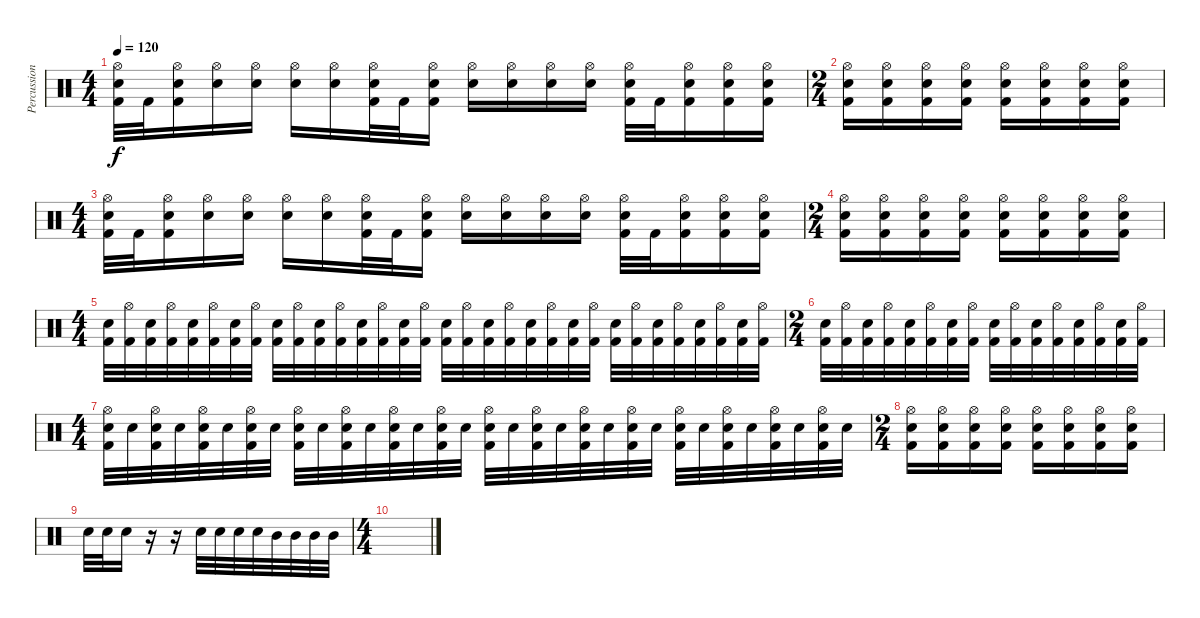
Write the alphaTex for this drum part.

\track ("Percussion" "Percussion") {instrument percussion}
\staff {score}
\articulation defaults
\ts (4 4)
\tempo 120
\clef neutral
\ks c
("Hi-Hat (open)" "Electric Snare (hit)" "Kick (hit) 2").32{dy f} "Kick (hit) 2".32 ("Hi-Hat (open)" "Electric Snare (hit)" "Kick (hit) 2").16 ("Hi-Hat (open)" "Electric Snare (hit)").16 ("Hi-Hat (open)" "Electric Snare (hit)").16 ("Hi-Hat (open)" "Electric Snare (hit)").16 ("Hi-Hat (open)" "Electric Snare (hit)").16 ("Hi-Hat (open)" "Electric Snare (hit)" "Kick (hit) 2").32 "Kick (hit) 2".32 ("Hi-Hat (open)" "Electric Snare (hit)" "Kick (hit) 2").16 ("Hi-Hat (open)" "Electric Snare (hit)").16 ("Hi-Hat (open)" "Electric Snare (hit)").16 ("Hi-Hat (open)" "Electric Snare (hit)").16 ("Hi-Hat (open)" "Electric Snare (hit)").16 ("Hi-Hat (open)" "Electric Snare (hit)" "Kick (hit) 2").32 "Kick (hit) 2".32 ("Hi-Hat (open)" "Electric Snare (hit)" "Kick (hit) 2").16 ("Hi-Hat (open)" "Electric Snare (hit)" "Kick (hit) 2").16 ("Hi-Hat (open)" "Electric Snare (hit)" "Kick (hit) 2").16 |
\ts (2 4)
("Hi-Hat (open)" "Electric Snare (hit)" "Kick (hit) 2").16 ("Hi-Hat (open)" "Electric Snare (hit)" "Kick (hit) 2").16 ("Hi-Hat (open)" "Electric Snare (hit)" "Kick (hit) 2").16 ("Hi-Hat (open)" "Electric Snare (hit)" "Kick (hit) 2").16 ("Hi-Hat (open)" "Electric Snare (hit)" "Kick (hit) 2").16 ("Hi-Hat (open)" "Electric Snare (hit)" "Kick (hit) 2").16 ("Hi-Hat (open)" "Electric Snare (hit)" "Kick (hit) 2").16 ("Hi-Hat (open)" "Electric Snare (hit)" "Kick (hit) 2").16 |
\ts (4 4)
("Hi-Hat (open)" "Electric Snare (hit)" "Kick (hit) 2").32 "Kick (hit) 2".32 ("Hi-Hat (open)" "Electric Snare (hit)" "Kick (hit) 2").16 ("Hi-Hat (open)" "Electric Snare (hit)").16 ("Hi-Hat (open)" "Electric Snare (hit)").16 ("Hi-Hat (open)" "Electric Snare (hit)").16 ("Hi-Hat (open)" "Electric Snare (hit)").16 ("Hi-Hat (open)" "Electric Snare (hit)" "Kick (hit) 2").32 "Kick (hit) 2".32 ("Hi-Hat (open)" "Electric Snare (hit)" "Kick (hit) 2").16 ("Hi-Hat (open)" "Electric Snare (hit)").16 ("Hi-Hat (open)" "Electric Snare (hit)").16 ("Hi-Hat (open)" "Electric Snare (hit)").16 ("Hi-Hat (open)" "Electric Snare (hit)").16 ("Hi-Hat (open)" "Electric Snare (hit)" "Kick (hit) 2").32 "Kick (hit) 2".32 ("Hi-Hat (open)" "Electric Snare (hit)" "Kick (hit) 2").16 ("Hi-Hat (open)" "Electric Snare (hit)" "Kick (hit) 2").16 ("Hi-Hat (open)" "Electric Snare (hit)" "Kick (hit) 2").16 |
\ts (2 4)
("Hi-Hat (open)" "Electric Snare (hit)" "Kick (hit) 2").16 ("Hi-Hat (open)" "Electric Snare (hit)" "Kick (hit) 2").16 ("Hi-Hat (open)" "Electric Snare (hit)" "Kick (hit) 2").16 ("Hi-Hat (open)" "Electric Snare (hit)" "Kick (hit) 2").16 ("Hi-Hat (open)" "Electric Snare (hit)" "Kick (hit) 2").16 ("Hi-Hat (open)" "Electric Snare (hit)" "Kick (hit) 2").16 ("Hi-Hat (open)" "Electric Snare (hit)" "Kick (hit) 2").16 ("Hi-Hat (open)" "Electric Snare (hit)" "Kick (hit) 2").16 |
\ts (4 4)
("Electric Snare (hit)" "Kick (hit) 2").32 ("Hi-Hat (open)" "Kick (hit) 2").32 ("Electric Snare (hit)" "Kick (hit) 2").32 ("Hi-Hat (open)" "Kick (hit) 2").32 ("Electric Snare (hit)" "Kick (hit) 2").32 ("Hi-Hat (open)" "Kick (hit) 2").32 ("Electric Snare (hit)" "Kick (hit) 2").32 ("Hi-Hat (open)" "Kick (hit) 2").32 ("Electric Snare (hit)" "Kick (hit) 2").32 ("Hi-Hat (open)" "Kick (hit) 2").32 ("Electric Snare (hit)" "Kick (hit) 2").32 ("Hi-Hat (open)" "Kick (hit) 2").32 ("Electric Snare (hit)" "Kick (hit) 2").32 ("Hi-Hat (open)" "Kick (hit) 2").32 ("Electric Snare (hit)" "Kick (hit) 2").32 ("Hi-Hat (open)" "Kick (hit) 2").32 ("Electric Snare (hit)" "Kick (hit) 2").32 ("Hi-Hat (open)" "Kick (hit) 2").32 ("Electric Snare (hit)" "Kick (hit) 2").32 ("Hi-Hat (open)" "Kick (hit) 2").32 ("Electric Snare (hit)" "Kick (hit) 2").32 ("Hi-Hat (open)" "Kick (hit) 2").32 ("Electric Snare (hit)" "Kick (hit) 2").32 ("Hi-Hat (open)" "Kick (hit) 2").32 ("Electric Snare (hit)" "Kick (hit) 2").32 ("Hi-Hat (open)" "Kick (hit) 2").32 ("Electric Snare (hit)" "Kick (hit) 2").32 ("Hi-Hat (open)" "Kick (hit) 2").32 ("Electric Snare (hit)" "Kick (hit) 2").32 ("Hi-Hat (open)" "Kick (hit) 2").32 ("Electric Snare (hit)" "Kick (hit) 2").32 ("Hi-Hat (open)" "Kick (hit) 2").32 |
\ts (2 4)
("Electric Snare (hit)" "Kick (hit) 2").32 ("Hi-Hat (open)" "Kick (hit) 2").32 ("Electric Snare (hit)" "Kick (hit) 2").32 ("Hi-Hat (open)" "Kick (hit) 2").32 ("Electric Snare (hit)" "Kick (hit) 2").32 ("Hi-Hat (open)" "Kick (hit) 2").32 ("Electric Snare (hit)" "Kick (hit) 2").32 ("Hi-Hat (open)" "Kick (hit) 2").32 ("Electric Snare (hit)" "Kick (hit) 2").32 ("Hi-Hat (open)" "Kick (hit) 2").32 ("Electric Snare (hit)" "Kick (hit) 2").32 ("Hi-Hat (open)" "Kick (hit) 2").32 ("Electric Snare (hit)" "Kick (hit) 2").32 ("Hi-Hat (open)" "Kick (hit) 2").32 ("Electric Snare (hit)" "Kick (hit) 2").32 ("Hi-Hat (open)" "Kick (hit) 2").32 |
\ts (4 4)
("Hi-Hat (open)" "Electric Snare (hit)" "Kick (hit) 2").32 "Electric Snare (hit)".32 ("Hi-Hat (open)" "Electric Snare (hit)" "Kick (hit) 2").32 "Electric Snare (hit)".32 ("Hi-Hat (open)" "Electric Snare (hit)" "Kick (hit) 2").32 "Electric Snare (hit)".32 ("Hi-Hat (open)" "Electric Snare (hit)" "Kick (hit) 2").32 "Electric Snare (hit)".32 ("Hi-Hat (open)" "Electric Snare (hit)" "Kick (hit) 2").32 "Electric Snare (hit)".32 ("Hi-Hat (open)" "Electric Snare (hit)" "Kick (hit) 2").32 "Electric Snare (hit)".32 ("Hi-Hat (open)" "Electric Snare (hit)" "Kick (hit) 2").32 "Electric Snare (hit)".32 ("Hi-Hat (open)" "Electric Snare (hit)" "Kick (hit) 2").32 "Electric Snare (hit)".32 ("Hi-Hat (open)" "Electric Snare (hit)" "Kick (hit) 2").32 "Electric Snare (hit)".32 ("Hi-Hat (open)" "Electric Snare (hit)" "Kick (hit) 2").32 "Electric Snare (hit)".32 ("Hi-Hat (open)" "Electric Snare (hit)" "Kick (hit) 2").32 "Electric Snare (hit)".32 ("Hi-Hat (open)" "Electric Snare (hit)" "Kick (hit) 2").32 "Electric Snare (hit)".32 ("Hi-Hat (open)" "Electric Snare (hit)" "Kick (hit) 2").32 "Electric Snare (hit)".32 ("Hi-Hat (open)" "Electric Snare (hit)" "Kick (hit) 2").32 "Electric Snare (hit)".32 ("Hi-Hat (open)" "Electric Snare (hit)" "Kick (hit) 2").32 "Electric Snare (hit)".32 ("Hi-Hat (open)" "Electric Snare (hit)" "Kick (hit) 2").32 "Electric Snare (hit)".32 |
\ts (2 4)
("Hi-Hat (open)" "Electric Snare (hit)" "Kick (hit) 2").16 ("Hi-Hat (open)" "Electric Snare (hit)" "Kick (hit) 2").16 ("Hi-Hat (open)" "Electric Snare (hit)" "Kick (hit) 2").16 ("Hi-Hat (open)" "Electric Snare (hit)" "Kick (hit) 2").16 ("Hi-Hat (open)" "Electric Snare (hit)" "Kick (hit) 2").16 ("Hi-Hat (open)" "Electric Snare (hit)" "Kick (hit) 2").16 ("Hi-Hat (open)" "Electric Snare (hit)" "Kick (hit) 2").16 ("Hi-Hat (open)" "Electric Snare (hit)" "Kick (hit) 2").16 |
"Electric Snare (hit)".32 "Electric Snare (hit)".32 "Electric Snare (hit)".16 r.16 r.16 "Electric Snare (hit)".32 "Electric Snare (hit)".32 "Electric Snare (hit)".32 "Electric Snare (hit)".32 "Mid Tom (hit)".32 "Mid Tom (hit)".32 "Mid Tom (hit)".32 "Mid Tom (hit)".32 |
\ts (4 4)
